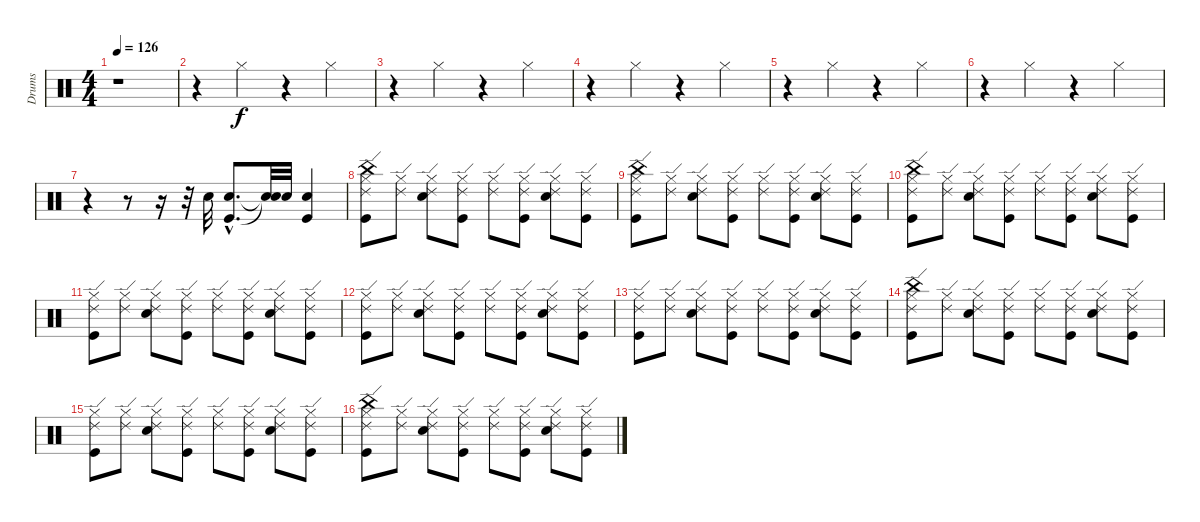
\track ("Drums" "Drums") {instrument percussion}
\staff {score}
\articulation defaults
\ts (4 4)
\tempo 126
\clef neutral
\ks c
r.1{dy f} |
r.4 "Hi-Hat (closed)".4 r.4 "Hi-Hat (closed)".4 |
r.4 "Hi-Hat (closed)".4 r.4 "Hi-Hat (closed)".4 |
r.4 "Hi-Hat (closed)".4 r.4 "Hi-Hat (closed)".4 |
r.4 "Hi-Hat (closed)".4 r.4 "Hi-Hat (closed)".4 |
r.4 "Hi-Hat (closed)".4 r.4 "Hi-Hat (closed)".4 |
r.4 r.8 r.16 r.32 "Electric Snare (hit)".32 ("Electric Snare (hit)"{hac} "Kick (hit)"{hac}).8{d} ("Snare (hit)"{t} "Snare (hit)"{t}).32 "Electric Snare (hit)".32 ("Kick (hit)" "Electric Snare (hit)").4 |
("Hi-Hat (closed)" "China (hit)" "Ride (edge) 2" "Kick (hit)").8 ("Hi-Hat (closed)" "Ride (edge) 2").8 ("Hi-Hat (closed)" "Ride (edge) 2" "Electric Snare (hit)").8 ("Hi-Hat (closed)" "Ride (edge) 2" "Kick (hit)").8 ("Hi-Hat (closed)" "Ride (edge) 2").8 ("Hi-Hat (closed)" "Ride (edge) 2" "Kick (hit)").8 ("Hi-Hat (closed)" "Ride (edge) 2" "Electric Snare (hit)").8 ("Hi-Hat (closed)" "Ride (edge) 2" "Kick (hit)").8 |
("Hi-Hat (closed)" "China (hit)" "Ride (edge) 2" "Kick (hit)").8 ("Hi-Hat (closed)" "Ride (edge) 2").8 ("Hi-Hat (closed)" "Ride (edge) 2" "Electric Snare (hit)").8 ("Hi-Hat (closed)" "Ride (edge) 2" "Kick (hit)").8 ("Hi-Hat (closed)" "Ride (edge) 2").8 ("Hi-Hat (closed)" "Ride (edge) 2" "Kick (hit)").8 ("Hi-Hat (closed)" "Ride (edge) 2" "Electric Snare (hit)").8 ("Hi-Hat (closed)" "Ride (edge) 2" "Kick (hit)").8 |
("Hi-Hat (closed)" "China (hit)" "Ride (edge) 2" "Kick (hit)").8 ("Hi-Hat (closed)" "Ride (edge) 2").8 ("Hi-Hat (closed)" "Ride (edge) 2" "Electric Snare (hit)").8 ("Hi-Hat (closed)" "Ride (edge) 2" "Kick (hit)").8 ("Hi-Hat (closed)" "Ride (edge) 2").8 ("Hi-Hat (closed)" "Ride (edge) 2" "Kick (hit)").8 ("Hi-Hat (closed)" "Ride (edge) 2" "Electric Snare (hit)").8 ("Hi-Hat (closed)" "Ride (edge) 2" "Kick (hit)").8 |
("Hi-Hat (closed)" "Ride (edge) 2" "Kick (hit)").8 ("Hi-Hat (closed)" "Ride (edge) 2").8 ("Hi-Hat (closed)" "Ride (edge) 2" "Electric Snare (hit)").8 ("Hi-Hat (closed)" "Ride (edge) 2" "Kick (hit)").8 ("Hi-Hat (closed)" "Ride (edge) 2").8 ("Hi-Hat (closed)" "Ride (edge) 2" "Kick (hit)").8 ("Hi-Hat (closed)" "Ride (edge) 2" "Electric Snare (hit)").8 ("Hi-Hat (closed)" "Ride (edge) 2" "Kick (hit)").8 |
("Hi-Hat (closed)" "Ride (edge) 2" "Kick (hit)").8 ("Hi-Hat (closed)" "Ride (edge) 2").8 ("Hi-Hat (closed)" "Ride (edge) 2" "Electric Snare (hit)").8 ("Hi-Hat (closed)" "Ride (edge) 2" "Kick (hit)").8 ("Hi-Hat (closed)" "Ride (edge) 2").8 ("Hi-Hat (closed)" "Ride (edge) 2" "Kick (hit)").8 ("Hi-Hat (closed)" "Ride (edge) 2" "Electric Snare (hit)").8 ("Hi-Hat (closed)" "Ride (edge) 2" "Kick (hit)").8 |
("Hi-Hat (closed)" "Ride (edge) 2" "Kick (hit)").8 ("Hi-Hat (closed)" "Ride (edge) 2").8 ("Hi-Hat (closed)" "Ride (edge) 2" "Electric Snare (hit)").8 ("Hi-Hat (closed)" "Ride (edge) 2" "Kick (hit)").8 ("Hi-Hat (closed)" "Ride (edge) 2").8 ("Hi-Hat (closed)" "Ride (edge) 2" "Kick (hit)").8 ("Hi-Hat (closed)" "Ride (edge) 2" "Electric Snare (hit)").8 ("Hi-Hat (closed)" "Ride (edge) 2" "Kick (hit)").8 |
("Hi-Hat (closed)" "China (hit)" "Ride (edge) 2" "Kick (hit)").8 ("Hi-Hat (closed)" "Ride (edge) 2").8 ("Hi-Hat (closed)" "Ride (edge) 2" "Electric Snare (hit)").8 ("Hi-Hat (closed)" "Ride (edge) 2" "Kick (hit)").8 ("Hi-Hat (closed)" "Ride (edge) 2").8 ("Hi-Hat (closed)" "Ride (edge) 2" "Kick (hit)").8 ("Hi-Hat (closed)" "Ride (edge) 2" "Electric Snare (hit)").8 ("Hi-Hat (closed)" "Ride (edge) 2" "Kick (hit)").8 |
("Hi-Hat (closed)" "Ride (edge) 2" "Kick (hit)").8 ("Hi-Hat (closed)" "Ride (edge) 2").8 ("Hi-Hat (closed)" "Ride (edge) 2" "Electric Snare (hit)").8 ("Hi-Hat (closed)" "Ride (edge) 2" "Kick (hit)").8 ("Hi-Hat (closed)" "Ride (edge) 2").8 ("Hi-Hat (closed)" "Ride (edge) 2" "Kick (hit)").8 ("Hi-Hat (closed)" "Ride (edge) 2" "Electric Snare (hit)").8 ("Hi-Hat (closed)" "Ride (edge) 2" "Kick (hit)").8 |
("Hi-Hat (closed)" "China (hit)" "Ride (edge) 2" "Kick (hit)").8 ("Hi-Hat (closed)" "Ride (edge) 2").8 ("Hi-Hat (closed)" "Ride (edge) 2" "Electric Snare (hit)").8 ("Hi-Hat (closed)" "Ride (edge) 2" "Kick (hit)").8 ("Hi-Hat (closed)" "Ride (edge) 2").8 ("Hi-Hat (closed)" "Ride (edge) 2" "Kick (hit)").8 ("Hi-Hat (closed)" "Ride (edge) 2" "Electric Snare (hit)").8 ("Hi-Hat (closed)" "Ride (edge) 2" "Kick (hit)").8
